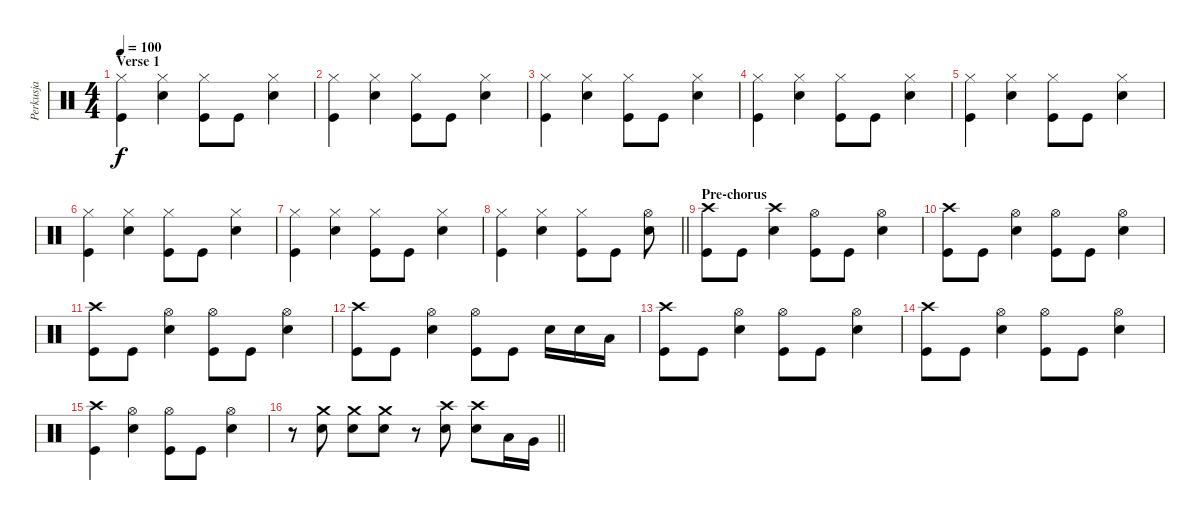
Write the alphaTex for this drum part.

\track ("Perkusja" "Perkusja") {instrument percussion}
\staff {score}
\articulation defaults
\ts (4 4)
\section ("" "Verse 1")
\tempo 100
\clef neutral
\ks c
("Kick (hit)" "Hi-Hat (closed)").4{dy f} ("Hi-Hat (closed)" "Snare (hit) 2").4 ("Hi-Hat (closed)" "Kick (hit)").8 "Kick (hit)".8 ("Hi-Hat (closed)" "Snare (hit) 2").4 |
("Kick (hit)" "Hi-Hat (closed)").4 ("Hi-Hat (closed)" "Snare (hit) 2").4 ("Hi-Hat (closed)" "Kick (hit)").8 "Kick (hit)".8 ("Hi-Hat (closed)" "Snare (hit) 2").4 |
("Kick (hit)" "Hi-Hat (closed)").4 ("Hi-Hat (closed)" "Snare (hit) 2").4 ("Hi-Hat (closed)" "Kick (hit)").8 "Kick (hit)".8 ("Hi-Hat (closed)" "Snare (hit) 2").4 |
("Kick (hit)" "Hi-Hat (closed)").4 ("Hi-Hat (closed)" "Snare (hit) 2").4 ("Hi-Hat (closed)" "Kick (hit)").8 "Kick (hit)".8 ("Hi-Hat (closed)" "Snare (hit) 2").4 |
("Kick (hit)" "Hi-Hat (closed)").4 ("Hi-Hat (closed)" "Snare (hit) 2").4 ("Hi-Hat (closed)" "Kick (hit)").8 "Kick (hit)".8 ("Hi-Hat (closed)" "Snare (hit) 2").4 |
("Kick (hit)" "Hi-Hat (closed)").4 ("Hi-Hat (closed)" "Snare (hit) 2").4 ("Hi-Hat (closed)" "Kick (hit)").8 "Kick (hit)".8 ("Hi-Hat (closed)" "Snare (hit) 2").4 |
("Kick (hit)" "Hi-Hat (closed)").4 ("Hi-Hat (closed)" "Snare (hit) 2").4 ("Hi-Hat (closed)" "Kick (hit)").8 "Kick (hit)".8 ("Hi-Hat (closed)" "Snare (hit) 2").4 |
\barLineRight lightlight
("Kick (hit)" "Hi-Hat (closed)").4 ("Hi-Hat (closed)" "Snare (hit) 2").4 ("Kick (hit)" "Hi-Hat (closed)").8 "Kick (hit)".8 ("Hi-Hat (open)" "Snare (hit) 2").8 |
\section ("" "Pre-chorus")
("Crash high (hit)" "Kick (hit)").8 "Kick (hit)".8 ("Crash high (hit)" "Snare (hit) 2").4 ("Hi-Hat (open)" "Kick (hit)").8 "Kick (hit)".8 ("Hi-Hat (open)" "Snare (hit) 2").4 |
("Crash high (hit)" "Kick (hit)").8 "Kick (hit)".8 ("Hi-Hat (open)" "Snare (hit) 2").4 ("Hi-Hat (open)" "Kick (hit)").8 "Kick (hit)".8 ("Hi-Hat (open)" "Snare (hit) 2").4 |
("Crash high (hit)" "Kick (hit)").8 "Kick (hit)".8 ("Hi-Hat (open)" "Snare (hit) 2").4 ("Hi-Hat (open)" "Kick (hit)").8 "Kick (hit)".8 ("Hi-Hat (open)" "Snare (hit) 2").4 |
("Crash high (hit)" "Kick (hit)").8 "Kick (hit)".8 ("Hi-Hat (open)" "Snare (hit) 2").4 ("Hi-Hat (open)" "Kick (hit)").8 "Kick (hit)".8 "Snare (hit) 2".16 "Snare (hit) 2".16 "Low Tom (hit)".16 |
("Crash high (hit)" "Kick (hit)").8 "Kick (hit)".8 ("Hi-Hat (open)" "Snare (hit) 2").4 ("Hi-Hat (open)" "Kick (hit)").8 "Kick (hit)".8 ("Hi-Hat (open)" "Snare (hit) 2").4 |
("Crash high (hit)" "Kick (hit)").8 "Kick (hit)".8 ("Hi-Hat (open)" "Snare (hit) 2").4 ("Hi-Hat (open)" "Kick (hit)").8 "Kick (hit)".8 ("Hi-Hat (open)" "Snare (hit) 2").4 |
("Crash high (hit)" "Kick (hit)").4 ("Hi-Hat (open)" "Snare (hit) 2").4 ("Hi-Hat (open)" "Kick (hit)").8 "Kick (hit)".8 ("Hi-Hat (open)" "Snare (hit) 2").4 |
\barLineRight lightlight
r.8 ("Snare (hit) 2" "Crash medium (hit)").8 ("Snare (hit) 2" "Crash medium (hit)").8 ("Snare (hit) 2" "Crash medium (hit)").8 r.8 ("Snare (hit) 2" "Crash high (hit)").8 ("Snare (hit) 2" "Crash high (hit)").8 "Low Tom (hit)".16 "Very Low Tom (hit)".16
